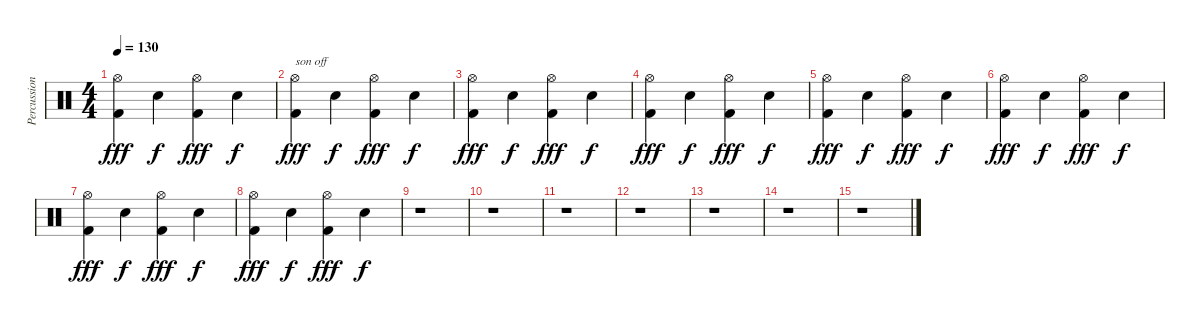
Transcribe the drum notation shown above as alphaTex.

\track ("Percussions" "Percussion") {instrument percussion}
\staff {score}
\articulation defaults
\ts (4 4)
\tempo 130
\clef neutral
\ks c
("Hi-Hat (open)" "Kick (hit) 2").4{dy fff} "Electric Snare (hit)".4{dy f} ("Hi-Hat (open)" "Kick (hit) 2").4{dy fff} "Electric Snare (hit)".4{dy f} |
("Hi-Hat (open)" "Kick (hit) 2").4{txt "son off" dy fff volume 12} "Electric Snare (hit)".4{dy f} ("Hi-Hat (open)" "Kick (hit) 2").4{dy fff} "Electric Snare (hit)".4{dy f} |
("Hi-Hat (open)" "Kick (hit) 2").4{dy fff} "Electric Snare (hit)".4{dy f} ("Hi-Hat (open)" "Kick (hit) 2").4{dy fff} "Electric Snare (hit)".4{dy f} |
("Hi-Hat (open)" "Kick (hit) 2").4{dy fff} "Electric Snare (hit)".4{dy f} ("Hi-Hat (open)" "Kick (hit) 2").4{dy fff} "Electric Snare (hit)".4{dy f} |
("Hi-Hat (open)" "Kick (hit) 2").4{dy fff volume 8} "Electric Snare (hit)".4{dy f} ("Hi-Hat (open)" "Kick (hit) 2").4{dy fff} "Electric Snare (hit)".4{dy f} |
("Hi-Hat (open)" "Kick (hit) 2").4{dy fff} "Electric Snare (hit)".4{dy f} ("Hi-Hat (open)" "Kick (hit) 2").4{dy fff} "Electric Snare (hit)".4{dy f} |
("Hi-Hat (open)" "Kick (hit) 2").4{dy fff volume 0} "Electric Snare (hit)".4{dy f} ("Hi-Hat (open)" "Kick (hit) 2").4{dy fff} "Electric Snare (hit)".4{dy f} |
("Hi-Hat (open)" "Kick (hit) 2").4{dy fff} "Electric Snare (hit)".4{dy f} ("Hi-Hat (open)" "Kick (hit) 2").4{dy fff} "Electric Snare (hit)".4{dy f} |
r.1 |
r.1 |
r.1 |
r.1 |
r.1 |
r.1 |
r.1
